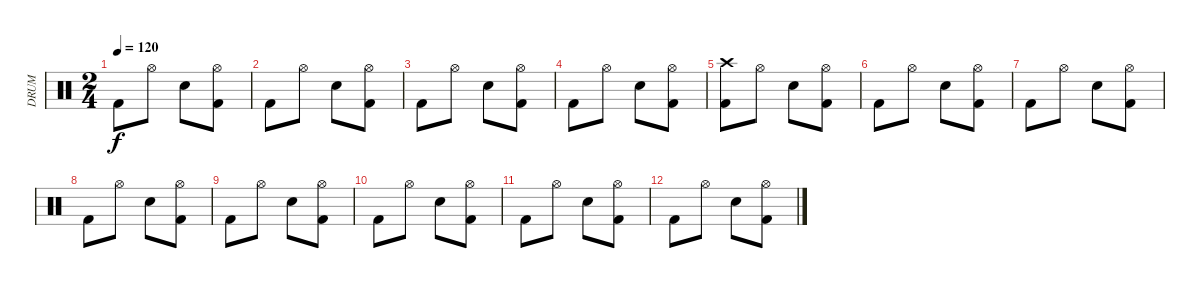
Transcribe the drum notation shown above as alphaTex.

\track ("DRUM" "DRUM") {instrument percussion}
\staff {score}
\articulation defaults
\ts (2 4)
\tempo 120
\clef neutral
\ks c "Kick (hit) 2".8{dy f} "Hi-Hat (open)".8 "Electric Snare (hit)".8
("Kick (hit) 2" "Hi-Hat (open)").8 |
"Kick (hit) 2".8 "Hi-Hat (open)".8 "Electric Snare (hit)".8 ("Kick (hit) 2" "Hi-Hat (open)").8 |
"Kick (hit) 2".8 "Hi-Hat (open)".8 "Electric Snare (hit)".8 ("Kick (hit) 2" "Hi-Hat (open)").8 |
"Kick (hit) 2".8 "Hi-Hat (open)".8 "Electric Snare (hit)".8 ("Kick (hit) 2" "Hi-Hat (open)").8 |
("Crash high (hit)" "Kick (hit) 2").8 "Hi-Hat (open)".8 "Electric Snare (hit)".8 ("Kick (hit) 2" "Hi-Hat (open)").8 |
"Kick (hit) 2".8 "Hi-Hat (open)".8 "Electric Snare (hit)".8 ("Kick (hit) 2" "Hi-Hat (open)").8 |
"Kick (hit) 2".8 "Hi-Hat (open)".8 "Electric Snare (hit)".8 ("Kick (hit) 2" "Hi-Hat (open)").8 |
"Kick (hit) 2".8 "Hi-Hat (open)".8 "Electric Snare (hit)".8 ("Kick (hit) 2" "Hi-Hat (open)").8 |
"Kick (hit) 2".8 "Hi-Hat (open)".8 "Electric Snare (hit)".8 ("Kick (hit) 2" "Hi-Hat (open)").8 |
"Kick (hit) 2".8 "Hi-Hat (open)".8 "Electric Snare (hit)".8 ("Kick (hit) 2" "Hi-Hat (open)").8 |
"Kick (hit) 2".8 "Hi-Hat (open)".8 "Electric Snare (hit)".8 ("Kick (hit) 2" "Hi-Hat (open)").8 |
"Kick (hit) 2".8 "Hi-Hat (open)".8 "Electric Snare (hit)".8 ("Kick (hit) 2" "Hi-Hat (open)").8
